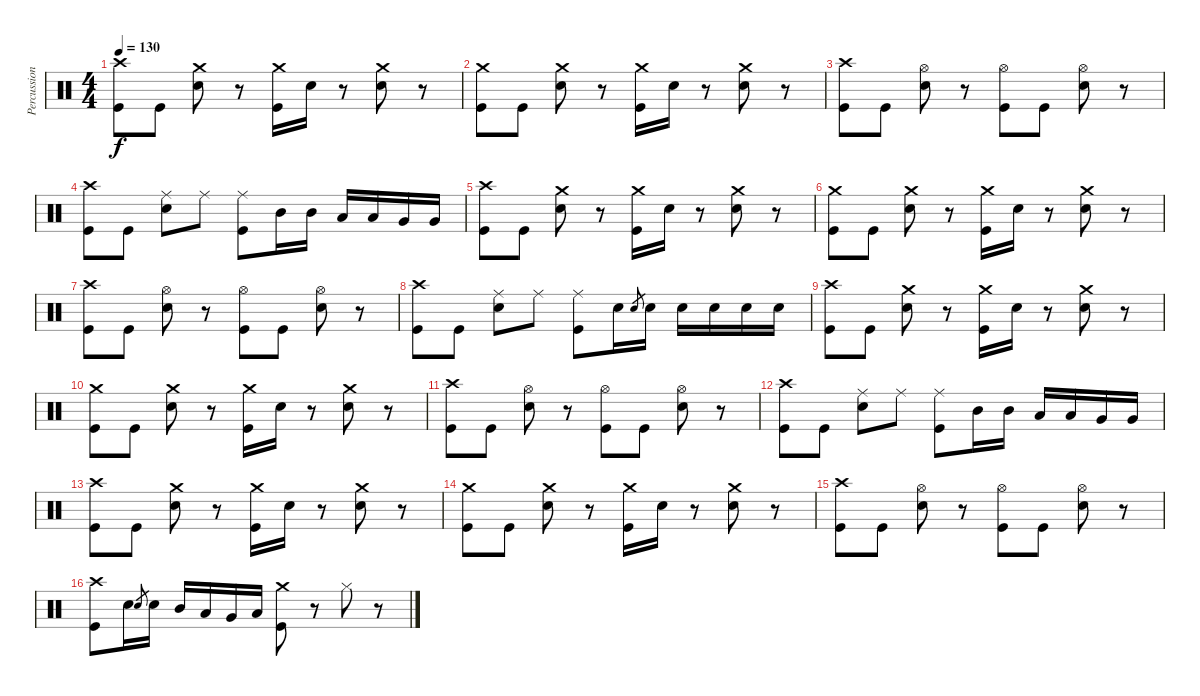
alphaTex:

\track ("Percussion" "Percussion") {instrument percussion}
\staff {score}
\articulation defaults
\ts (4 4)
\tempo 130
\clef neutral
\ks c
("Crash high (hit)" "Kick (hit)").8{dy f} "Kick (hit)".8 ("Crash medium (hit)" "Electric Snare (hit)").8 r.8 ("Crash medium (hit)" "Kick (hit)").16 "Electric Snare (hit)".16 r.8 ("Crash medium (hit)" "Electric Snare (hit)").8 r.8 |
("Crash medium (hit)" "Kick (hit)").8 "Kick (hit)".8 ("Crash medium (hit)" "Electric Snare (hit)").8 r.8 ("Crash medium (hit)" "Kick (hit)").16 "Electric Snare (hit)".16 r.8 ("Crash medium (hit)" "Electric Snare (hit)").8 r.8 |
("Crash high (hit)" "Kick (hit)").8 "Kick (hit)".8 ("Hi-Hat (open)" "Electric Snare (hit)").8 r.8 ("Hi-Hat (open)" "Kick (hit)").8 "Kick (hit)".8 ("Hi-Hat (open)" "Electric Snare (hit)").8 r.8 |
("Crash high (hit)" "Kick (hit)").8 "Kick (hit)".8 ("Ride (middle)" "Electric Snare (hit)").8 "Ride (middle)".8 ("Ride (middle)" "Kick (hit)").8 "Mid Tom (hit)".16 "Mid Tom (hit)".16 "Low Tom (hit)".16 "Low Tom (hit)".16 "Very Low Tom (hit)".16 "Very Low Tom (hit)".16 |
("Crash high (hit)" "Kick (hit)").8 "Kick (hit)".8 ("Crash medium (hit)" "Electric Snare (hit)").8 r.8 ("Crash medium (hit)" "Kick (hit)").16 "Electric Snare (hit)".16 r.8 ("Crash medium (hit)" "Electric Snare (hit)").8 r.8 |
("Crash medium (hit)" "Kick (hit)").8 "Kick (hit)".8 ("Crash medium (hit)" "Electric Snare (hit)").8 r.8 ("Crash medium (hit)" "Kick (hit)").16 "Electric Snare (hit)".16 r.8 ("Crash medium (hit)" "Electric Snare (hit)").8 r.8 |
("Crash high (hit)" "Kick (hit)").8 "Kick (hit)".8 ("Hi-Hat (open)" "Electric Snare (hit)").8 r.8 ("Hi-Hat (open)" "Kick (hit)").8 "Kick (hit)".8 ("Hi-Hat (open)" "Electric Snare (hit)").8 r.8 |
("Crash high (hit)" "Kick (hit)").8 "Kick (hit)".8 ("Ride (middle)" "Electric Snare (hit)").8 "Ride (middle)".8 ("Ride (middle)" "Kick (hit)").8 "Electric Snare (hit)".16 "Electric Snare (hit)".8{gr} "Electric Snare (hit)".16 "Electric Snare (hit)".16 "Electric Snare (hit)".16 "Electric Snare (hit)".16 "Electric Snare (hit)".16 |
("Crash high (hit)" "Kick (hit)").8 "Kick (hit)".8 ("Crash medium (hit)" "Electric Snare (hit)").8 r.8 ("Crash medium (hit)" "Kick (hit)").16 "Electric Snare (hit)".16 r.8 ("Crash medium (hit)" "Electric Snare (hit)").8 r.8 |
("Crash medium (hit)" "Kick (hit)").8 "Kick (hit)".8 ("Crash medium (hit)" "Electric Snare (hit)").8 r.8 ("Crash medium (hit)" "Kick (hit)").16 "Electric Snare (hit)".16 r.8 ("Crash medium (hit)" "Electric Snare (hit)").8 r.8 |
("Crash high (hit)" "Kick (hit)").8 "Kick (hit)".8 ("Hi-Hat (open)" "Electric Snare (hit)").8 r.8 ("Hi-Hat (open)" "Kick (hit)").8 "Kick (hit)".8 ("Hi-Hat (open)" "Electric Snare (hit)").8 r.8 |
("Crash high (hit)" "Kick (hit)").8 "Kick (hit)".8 ("Ride (middle)" "Electric Snare (hit)").8 "Ride (middle)".8 ("Ride (middle)" "Kick (hit)").8 "Mid Tom (hit)".16 "Mid Tom (hit)".16 "Low Tom (hit)".16 "Low Tom (hit)".16 "Very Low Tom (hit)".16 "Very Low Tom (hit)".16 |
("Crash high (hit)" "Kick (hit)").8 "Kick (hit)".8 ("Crash medium (hit)" "Electric Snare (hit)").8 r.8 ("Crash medium (hit)" "Kick (hit)").16 "Electric Snare (hit)".16 r.8 ("Crash medium (hit)" "Electric Snare (hit)").8 r.8 |
("Crash medium (hit)" "Kick (hit)").8 "Kick (hit)".8 ("Crash medium (hit)" "Electric Snare (hit)").8 r.8 ("Crash medium (hit)" "Kick (hit)").16 "Electric Snare (hit)".16 r.8 ("Crash medium (hit)" "Electric Snare (hit)").8 r.8 |
("Crash high (hit)" "Kick (hit)").8 "Kick (hit)".8 ("Hi-Hat (open)" "Electric Snare (hit)").8 r.8 ("Hi-Hat (open)" "Kick (hit)").8 "Kick (hit)".8 ("Hi-Hat (open)" "Electric Snare (hit)").8 r.8 |
("Crash high (hit)" "Kick (hit)").8 "Electric Snare (hit)".16 "Electric Snare (hit)".8{gr} "Electric Snare (hit)".16 "Mid Tom (hit)".16 "Low Tom (hit)".16 "Very Low Tom (hit)".16 "Low Floor Tom (hit)".16 ("Crash medium (hit)" "Kick (hit)").8 r.8 "Hi-Hat (closed)".8 r.8
